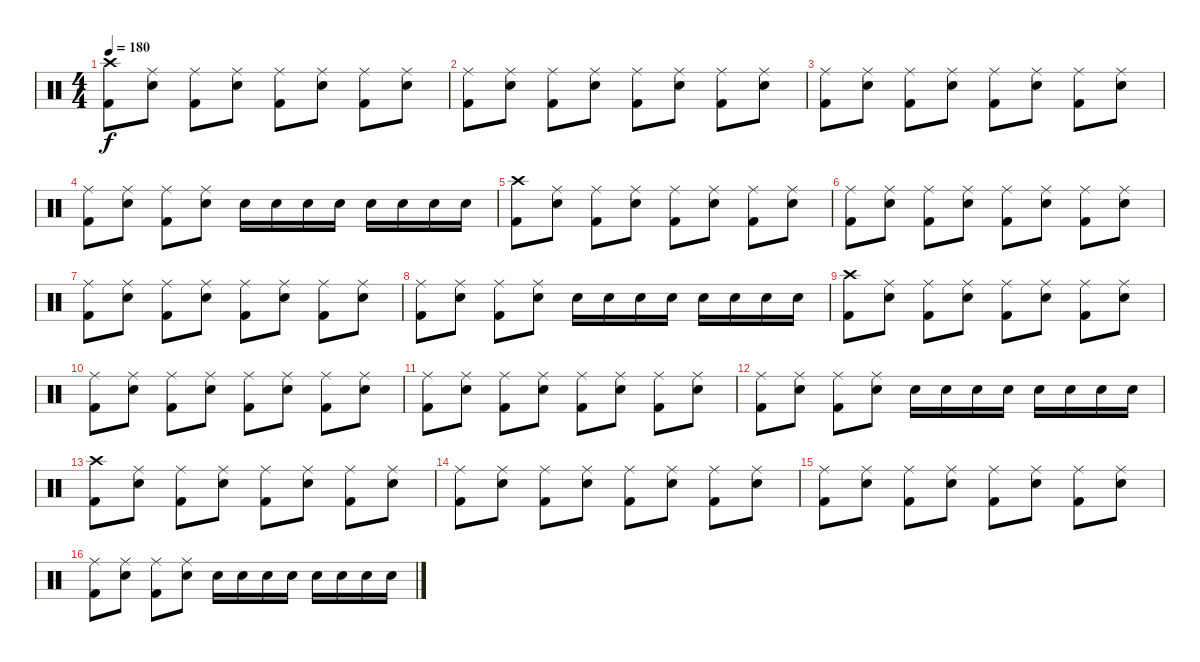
\track "" {instrument percussion}
\staff {score}
\articulation defaults
\ts (4 4)
\tempo 180
\clef neutral
\ks c
("Crash high (hit)" "Kick (hit) 2").8{dy f} ("Snare (hit) 2" "Ride (middle)").8 ("Kick (hit) 2" "Ride (middle)").8 ("Ride (middle)" "Snare (hit) 2").8 ("Ride (middle)" "Kick (hit) 2").8 ("Ride (middle)" "Snare (hit) 2").8 ("Ride (middle)" "Kick (hit) 2").8 ("Snare (hit) 2" "Ride (middle)").8 |
("Ride (middle)" "Kick (hit) 2").8 ("Ride (middle)" "Snare (hit) 2").8 ("Ride (middle)" "Kick (hit) 2").8 ("Snare (hit) 2" "Ride (middle)").8 ("Kick (hit) 2" "Ride (middle)").8 ("Snare (hit) 2" "Ride (middle)").8 ("Kick (hit) 2" "Ride (middle)").8 ("Snare (hit) 2" "Ride (middle)").8 |
("Kick (hit) 2" "Ride (middle)").8 ("Ride (middle)" "Snare (hit) 2").8 ("Ride (middle)" "Kick (hit) 2").8 ("Ride (middle)" "Snare (hit) 2").8 ("Ride (middle)" "Kick (hit) 2").8 ("Snare (hit) 2" "Ride (middle)").8 ("Ride (middle)" "Kick (hit) 2").8 ("Ride (middle)" "Snare (hit) 2").8 |
("Kick (hit) 2" "Ride (middle)").8 ("Ride (middle)" "Snare (hit) 2").8 ("Ride (middle)" "Kick (hit) 2").8 ("Ride (middle)" "Snare (hit) 2").8 "Snare (hit) 2".16 "Snare (hit) 2".16 "Snare (hit) 2".16 "Snare (hit) 2".16 "Snare (hit) 2".16 "Snare (hit) 2".16 "Snare (hit) 2".16 "Snare (hit) 2".16 |
("Kick (hit) 2" "Crash high (hit)").8 ("Snare (hit) 2" "Ride (middle)").8 ("Ride (middle)" "Kick (hit) 2").8 ("Ride (middle)" "Snare (hit) 2").8 ("Ride (middle)" "Kick (hit) 2").8 ("Snare (hit) 2" "Ride (middle)").8 ("Ride (middle)" "Kick (hit) 2").8 ("Ride (middle)" "Snare (hit) 2").8 |
("Ride (middle)" "Kick (hit) 2").8 ("Ride (middle)" "Snare (hit) 2").8 ("Ride (middle)" "Kick (hit) 2").8 ("Snare (hit) 2" "Ride (middle)").8 ("Kick (hit) 2" "Ride (middle)").8 ("Snare (hit) 2" "Ride (middle)").8 ("Ride (middle)" "Kick (hit) 2").8 ("Snare (hit) 2" "Ride (middle)").8 |
("Ride (middle)" "Kick (hit) 2").8 ("Ride (middle)" "Snare (hit) 2").8 ("Ride (middle)" "Kick (hit) 2").8 ("Ride (middle)" "Snare (hit) 2").8 ("Ride (middle)" "Kick (hit) 2").8 ("Ride (middle)" "Snare (hit) 2").8 ("Ride (middle)" "Kick (hit) 2").8 ("Ride (middle)" "Snare (hit) 2").8 |
("Ride (middle)" "Kick (hit) 2").8 ("Snare (hit) 2" "Ride (middle)").8 ("Kick (hit) 2" "Ride (middle)").8 ("Snare (hit) 2" "Ride (middle)").8 "Snare (hit) 2".16 "Snare (hit) 2".16 "Snare (hit) 2".16 "Snare (hit) 2".16 "Snare (hit) 2".16 "Snare (hit) 2".16 "Snare (hit) 2".16 "Snare (hit) 2".16 |
("Crash high (hit)" "Kick (hit) 2").8 ("Ride (middle)" "Snare (hit) 2").8 ("Kick (hit) 2" "Ride (middle)").8 ("Ride (middle)" "Snare (hit) 2").8 ("Ride (middle)" "Kick (hit) 2").8 ("Ride (middle)" "Snare (hit) 2").8 ("Kick (hit) 2" "Ride (middle)").8 ("Snare (hit) 2" "Ride (middle)").8 |
("Kick (hit) 2" "Ride (middle)").8 ("Snare (hit) 2" "Ride (middle)").8 ("Kick (hit) 2" "Ride (middle)").8 ("Snare (hit) 2" "Ride (middle)").8 ("Ride (middle)" "Kick (hit) 2").8 ("Ride (middle)" "Snare (hit) 2").8 ("Ride (middle)" "Kick (hit) 2").8 ("Ride (middle)" "Snare (hit) 2").8 |
("Kick (hit) 2" "Ride (middle)").8 ("Ride (middle)" "Snare (hit) 2").8 ("Kick (hit) 2" "Ride (middle)").8 ("Ride (middle)" "Snare (hit) 2").8 ("Ride (middle)" "Kick (hit) 2").8 ("Snare (hit) 2" "Ride (middle)").8 ("Ride (middle)" "Kick (hit) 2").8 ("Ride (middle)" "Snare (hit) 2").8 |
("Ride (middle)" "Kick (hit) 2").8 ("Ride (middle)" "Snare (hit) 2").8 ("Kick (hit) 2" "Ride (middle)").8 ("Snare (hit) 2" "Ride (middle)").8 "Snare (hit) 2".16 "Snare (hit) 2".16 "Snare (hit) 2".16 "Snare (hit) 2".16 "Snare (hit) 2".16 "Snare (hit) 2".16 "Snare (hit) 2".16 "Snare (hit) 2".16 |
("Crash high (hit)" "Kick (hit) 2").8 ("Ride (middle)" "Snare (hit) 2").8 ("Ride (middle)" "Kick (hit) 2").8 ("Snare (hit) 2" "Ride (middle)").8 ("Kick (hit) 2" "Ride (middle)").8 ("Snare (hit) 2" "Ride (middle)").8 ("Kick (hit) 2" "Ride (middle)").8 ("Snare (hit) 2" "Ride (middle)").8 |
("Kick (hit) 2" "Ride (middle)").8 ("Ride (middle)" "Snare (hit) 2").8 ("Kick (hit) 2" "Ride (middle)").8 ("Ride (middle)" "Snare (hit) 2").8 ("Ride (middle)" "Kick (hit) 2").8 ("Ride (middle)" "Snare (hit) 2").8 ("Ride (middle)" "Kick (hit) 2").8 ("Ride (middle)" "Snare (hit) 2").8 |
("Ride (middle)" "Kick (hit) 2").8 ("Ride (middle)" "Snare (hit) 2").8 ("Ride (middle)" "Kick (hit) 2").8 ("Ride (middle)" "Snare (hit) 2").8 ("Kick (hit) 2" "Ride (middle)").8 ("Snare (hit) 2" "Ride (middle)").8 ("Kick (hit) 2" "Ride (middle)").8 ("Ride (middle)" "Snare (hit) 2").8 |
("Kick (hit) 2" "Ride (middle)").8 ("Ride (middle)" "Snare (hit) 2").8 ("Kick (hit) 2" "Ride (middle)").8 ("Ride (middle)" "Snare (hit) 2").8 "Snare (hit) 2".16 "Snare (hit) 2".16 "Snare (hit) 2".16 "Snare (hit) 2".16 "Snare (hit) 2".16 "Snare (hit) 2".16 "Snare (hit) 2".16 "Snare (hit) 2".16
